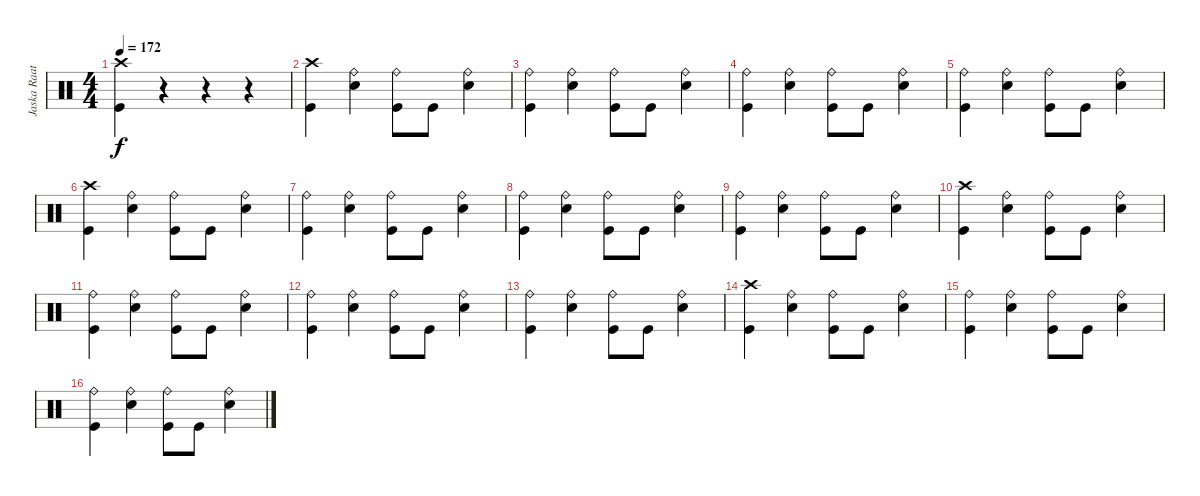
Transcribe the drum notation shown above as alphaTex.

\track ("Jaska Raatikainen" "Jaska Raat") {instrument percussion}
\staff {score}
\articulation defaults
\ts (4 4)
\tempo 172
\clef neutral
\ks c
("Crash high (hit)" "Kick (hit)").4{dy f} r.4 r.4 r.4 |
("Crash high (hit)" "Kick (hit)").4 ("Ride (bell)" "Snare (hit) 2").4 ("Ride (bell)" "Kick (hit)").8 "Kick (hit)".8 ("Ride (bell)" "Snare (hit) 2").4 |
("Ride (bell)" "Kick (hit)").4 ("Ride (bell)" "Snare (hit) 2").4 ("Ride (bell)" "Kick (hit)").8 "Kick (hit)".8 ("Ride (bell)" "Snare (hit) 2").4 |
("Ride (bell)" "Kick (hit)").4 ("Ride (bell)" "Snare (hit) 2").4 ("Ride (bell)" "Kick (hit)").8 "Kick (hit)".8 ("Ride (bell)" "Snare (hit) 2").4 |
("Ride (bell)" "Kick (hit)").4 ("Ride (bell)" "Snare (hit) 2").4 ("Ride (bell)" "Kick (hit)").8 "Kick (hit)".8 ("Ride (bell)" "Snare (hit) 2").4 |
("Crash high (hit)" "Kick (hit)").4 ("Ride (bell)" "Snare (hit) 2").4 ("Ride (bell)" "Kick (hit)").8 "Kick (hit)".8 ("Ride (bell)" "Snare (hit) 2").4 |
("Ride (bell)" "Kick (hit)").4 ("Ride (bell)" "Snare (hit) 2").4 ("Ride (bell)" "Kick (hit)").8 "Kick (hit)".8 ("Ride (bell)" "Snare (hit) 2").4 |
("Ride (bell)" "Kick (hit)").4 ("Ride (bell)" "Snare (hit) 2").4 ("Ride (bell)" "Kick (hit)").8 "Kick (hit)".8 ("Ride (bell)" "Snare (hit) 2").4 |
("Ride (bell)" "Kick (hit)").4 ("Ride (bell)" "Snare (hit) 2").4 ("Ride (bell)" "Kick (hit)").8 "Kick (hit)".8 ("Ride (bell)" "Snare (hit) 2").4 |
("Crash high (hit)" "Kick (hit)").4 ("Ride (bell)" "Snare (hit) 2").4 ("Ride (bell)" "Kick (hit)").8 "Kick (hit)".8 ("Ride (bell)" "Snare (hit) 2").4 |
("Ride (bell)" "Kick (hit)").4 ("Ride (bell)" "Snare (hit) 2").4 ("Ride (bell)" "Kick (hit)").8 "Kick (hit)".8 ("Ride (bell)" "Snare (hit) 2").4 |
("Ride (bell)" "Kick (hit)").4 ("Ride (bell)" "Snare (hit) 2").4 ("Ride (bell)" "Kick (hit)").8 "Kick (hit)".8 ("Ride (bell)" "Snare (hit) 2").4 |
("Ride (bell)" "Kick (hit)").4 ("Ride (bell)" "Snare (hit) 2").4 ("Ride (bell)" "Kick (hit)").8 "Kick (hit)".8 ("Ride (bell)" "Snare (hit) 2").4 |
("Crash high (hit)" "Kick (hit)").4 ("Ride (bell)" "Snare (hit) 2").4 ("Ride (bell)" "Kick (hit)").8 "Kick (hit)".8 ("Ride (bell)" "Snare (hit) 2").4 |
("Ride (bell)" "Kick (hit)").4 ("Ride (bell)" "Snare (hit) 2").4 ("Ride (bell)" "Kick (hit)").8 "Kick (hit)".8 ("Ride (bell)" "Snare (hit) 2").4 |
("Ride (bell)" "Kick (hit)").4 ("Ride (bell)" "Snare (hit) 2").4 ("Ride (bell)" "Kick (hit)").8 "Kick (hit)".8 ("Ride (bell)" "Snare (hit) 2").4
